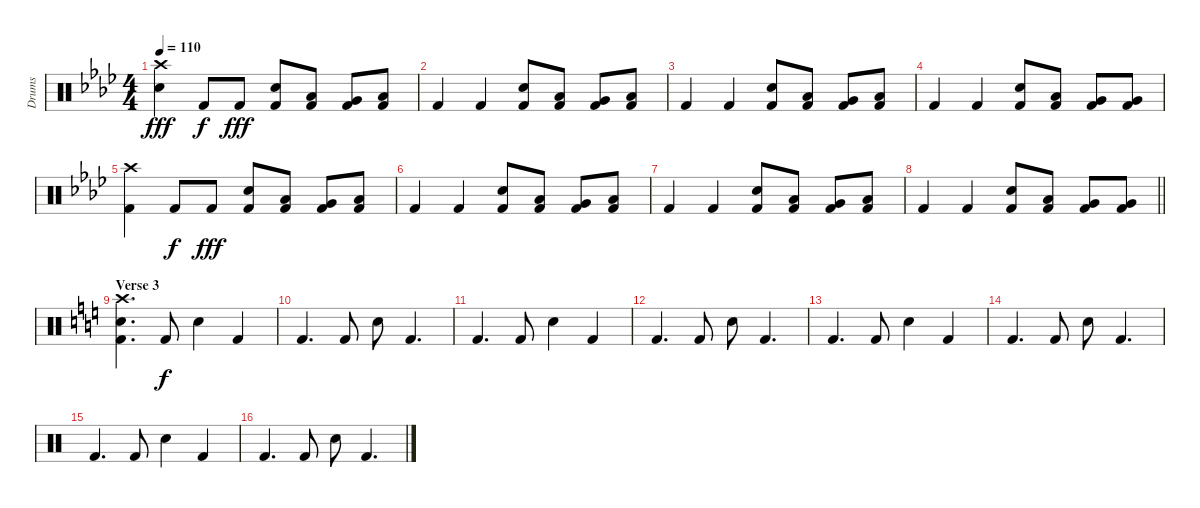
\track ("Drums" "Drums") {instrument percussion}
\staff {score}
\articulation defaults
\ts (4 4)
\tempo 110
\clef neutral
\ks fminor
("Crash high (hit)" "Electric Snare (hit)").4{dy fff} "Kick (hit) 2".8{dy f} "Kick (hit) 2".8{dy fff} ("Electric Snare (hit)" "Kick (hit) 2").8 ("Low Tom (hit)" "Kick (hit) 2").8 ("Very Low Tom (hit)" "Kick (hit) 2").8 ("Low Tom (hit)" "Kick (hit) 2").8 |
"Kick (hit) 2".4 "Kick (hit) 2".4 ("Electric Snare (hit)" "Kick (hit) 2").8 ("Low Tom (hit)" "Kick (hit) 2").8 ("Very Low Tom (hit)" "Kick (hit) 2").8 ("Low Tom (hit)" "Kick (hit) 2").8 |
"Kick (hit) 2".4 "Kick (hit) 2".4 ("Electric Snare (hit)" "Kick (hit) 2").8 ("Low Tom (hit)" "Kick (hit) 2").8 ("Very Low Tom (hit)" "Kick (hit) 2").8 ("Low Tom (hit)" "Kick (hit) 2").8 |
"Kick (hit) 2".4 "Kick (hit) 2".4 ("Electric Snare (hit)" "Kick (hit) 2").8 ("Low Tom (hit)" "Kick (hit) 2").8 ("Very Low Tom (hit)" "Kick (hit) 2").8 ("Very Low Tom (hit)" "Kick (hit) 2").8 |
("Crash high (hit)" "Kick (hit) 2").4 "Kick (hit) 2".8{dy f} "Kick (hit) 2".8{dy fff} ("Electric Snare (hit)" "Kick (hit) 2").8 ("Low Tom (hit)" "Kick (hit) 2").8 ("Very Low Tom (hit)" "Kick (hit) 2").8 ("Low Tom (hit)" "Kick (hit) 2").8 |
"Kick (hit) 2".4 "Kick (hit) 2".4 ("Electric Snare (hit)" "Kick (hit) 2").8 ("Low Tom (hit)" "Kick (hit) 2").8 ("Very Low Tom (hit)" "Kick (hit) 2").8 ("Low Tom (hit)" "Kick (hit) 2").8 |
"Kick (hit) 2".4 "Kick (hit) 2".4 ("Electric Snare (hit)" "Kick (hit) 2").8 ("Low Tom (hit)" "Kick (hit) 2").8 ("Very Low Tom (hit)" "Kick (hit) 2").8 ("Low Tom (hit)" "Kick (hit) 2").8 |
\barLineRight lightlight "Kick (hit) 2".4 "Kick (hit) 2".4
("Electric Snare (hit)" "Kick (hit) 2").8 ("Low Tom (hit)" "Kick (hit) 2").8 ("Very Low Tom (hit)" "Kick (hit) 2").8 ("Very Low Tom (hit)" "Kick (hit) 2").8 |
\section ("" "Verse 3")
\ks c
("Crash high (hit)" "Electric Snare (hit)" "Kick (hit) 2").4{d} "Kick (hit) 2".8{dy f} "Electric Snare (hit)".4 "Kick (hit) 2".4 |
"Kick (hit) 2".4{d} "Kick (hit) 2".8 "Electric Snare (hit)".8 "Kick (hit) 2".4{d} |
"Kick (hit) 2".4{d} "Kick (hit) 2".8 "Electric Snare (hit)".4 "Kick (hit) 2".4 |
"Kick (hit) 2".4{d} "Kick (hit) 2".8 "Electric Snare (hit)".8 "Kick (hit) 2".4{d} |
"Kick (hit) 2".4{d} "Kick (hit) 2".8 "Electric Snare (hit)".4 "Kick (hit) 2".4 |
"Kick (hit) 2".4{d} "Kick (hit) 2".8 "Electric Snare (hit)".8 "Kick (hit) 2".4{d} |
"Kick (hit) 2".4{d} "Kick (hit) 2".8 "Electric Snare (hit)".4 "Kick (hit) 2".4 |
"Kick (hit) 2".4{d} "Kick (hit) 2".8 "Electric Snare (hit)".8 "Kick (hit) 2".4{d}
